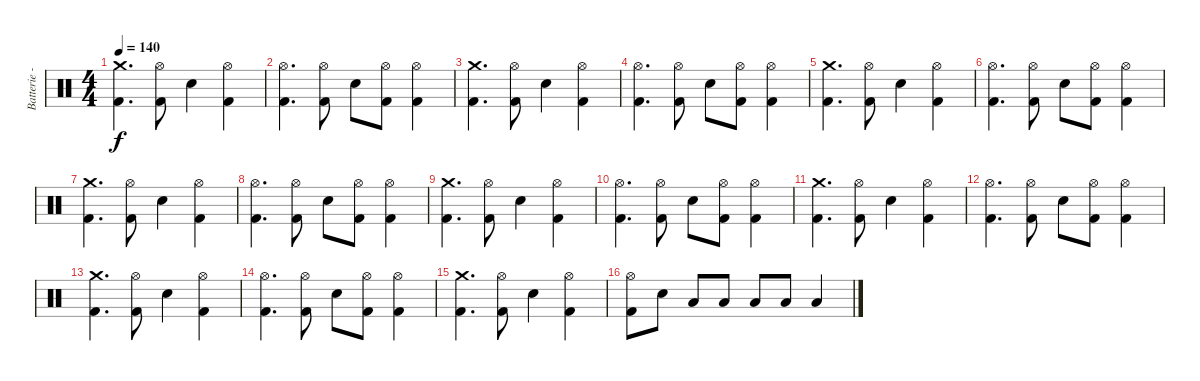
\track ("Batterie - Anders Johansson" "Batterie -") {instrument percussion}
\staff {score}
\articulation defaults
\ts (4 4)
\tempo 140
\clef neutral
\ks c
("Crash medium (hit)" "Kick (hit) 2").4{d dy f} ("Hi-Hat (open)" "Kick (hit) 2").8 "Electric Snare (hit)".4 ("Hi-Hat (open)" "Kick (hit) 2").4 |
("Hi-Hat (open)" "Kick (hit) 2").4{d} ("Hi-Hat (open)" "Kick (hit) 2").8 "Electric Snare (hit)".8 ("Hi-Hat (open)" "Kick (hit) 2").8 ("Hi-Hat (open)" "Kick (hit) 2").4 |
("Crash medium (hit)" "Kick (hit) 2").4{d} ("Hi-Hat (open)" "Kick (hit) 2").8 "Electric Snare (hit)".4 ("Hi-Hat (open)" "Kick (hit) 2").4 |
("Hi-Hat (open)" "Kick (hit) 2").4{d} ("Hi-Hat (open)" "Kick (hit) 2").8 "Electric Snare (hit)".8 ("Hi-Hat (open)" "Kick (hit) 2").8 ("Hi-Hat (open)" "Kick (hit) 2").4 |
("Crash medium (hit)" "Kick (hit) 2").4{d} ("Hi-Hat (open)" "Kick (hit) 2").8 "Electric Snare (hit)".4 ("Hi-Hat (open)" "Kick (hit) 2").4 |
("Hi-Hat (open)" "Kick (hit) 2").4{d} ("Hi-Hat (open)" "Kick (hit) 2").8 "Electric Snare (hit)".8 ("Hi-Hat (open)" "Kick (hit) 2").8 ("Hi-Hat (open)" "Kick (hit) 2").4 |
("Crash medium (hit)" "Kick (hit) 2").4{d} ("Hi-Hat (open)" "Kick (hit) 2").8 "Electric Snare (hit)".4 ("Hi-Hat (open)" "Kick (hit) 2").4 |
("Hi-Hat (open)" "Kick (hit) 2").4{d} ("Hi-Hat (open)" "Kick (hit) 2").8 "Electric Snare (hit)".8 ("Hi-Hat (open)" "Kick (hit) 2").8 ("Hi-Hat (open)" "Kick (hit) 2").4 |
("Crash medium (hit)" "Kick (hit) 2").4{d} ("Hi-Hat (open)" "Kick (hit) 2").8 "Electric Snare (hit)".4 ("Hi-Hat (open)" "Kick (hit) 2").4 |
("Hi-Hat (open)" "Kick (hit) 2").4{d} ("Hi-Hat (open)" "Kick (hit) 2").8 "Electric Snare (hit)".8 ("Hi-Hat (open)" "Kick (hit) 2").8 ("Hi-Hat (open)" "Kick (hit) 2").4 |
("Crash medium (hit)" "Kick (hit) 2").4{d} ("Hi-Hat (open)" "Kick (hit) 2").8 "Electric Snare (hit)".4 ("Hi-Hat (open)" "Kick (hit) 2").4 |
("Hi-Hat (open)" "Kick (hit) 2").4{d} ("Hi-Hat (open)" "Kick (hit) 2").8 "Electric Snare (hit)".8 ("Hi-Hat (open)" "Kick (hit) 2").8 ("Hi-Hat (open)" "Kick (hit) 2").4 |
("Crash medium (hit)" "Kick (hit) 2").4{d} ("Hi-Hat (open)" "Kick (hit) 2").8 "Electric Snare (hit)".4 ("Hi-Hat (open)" "Kick (hit) 2").4 |
("Hi-Hat (open)" "Kick (hit) 2").4{d} ("Hi-Hat (open)" "Kick (hit) 2").8 "Electric Snare (hit)".8 ("Hi-Hat (open)" "Kick (hit) 2").8 ("Hi-Hat (open)" "Kick (hit) 2").4 |
("Crash medium (hit)" "Kick (hit) 2").4{d} ("Hi-Hat (open)" "Kick (hit) 2").8 "Electric Snare (hit)".4 ("Hi-Hat (open)" "Kick (hit) 2").4 |
("Hi-Hat (open)" "Kick (hit) 2").8 "Electric Snare (hit)".8 "Low Tom (hit)".8 "Low Tom (hit)".8 "Low Tom (hit)".8 "Low Tom (hit)".8 "Low Tom (hit)".4
